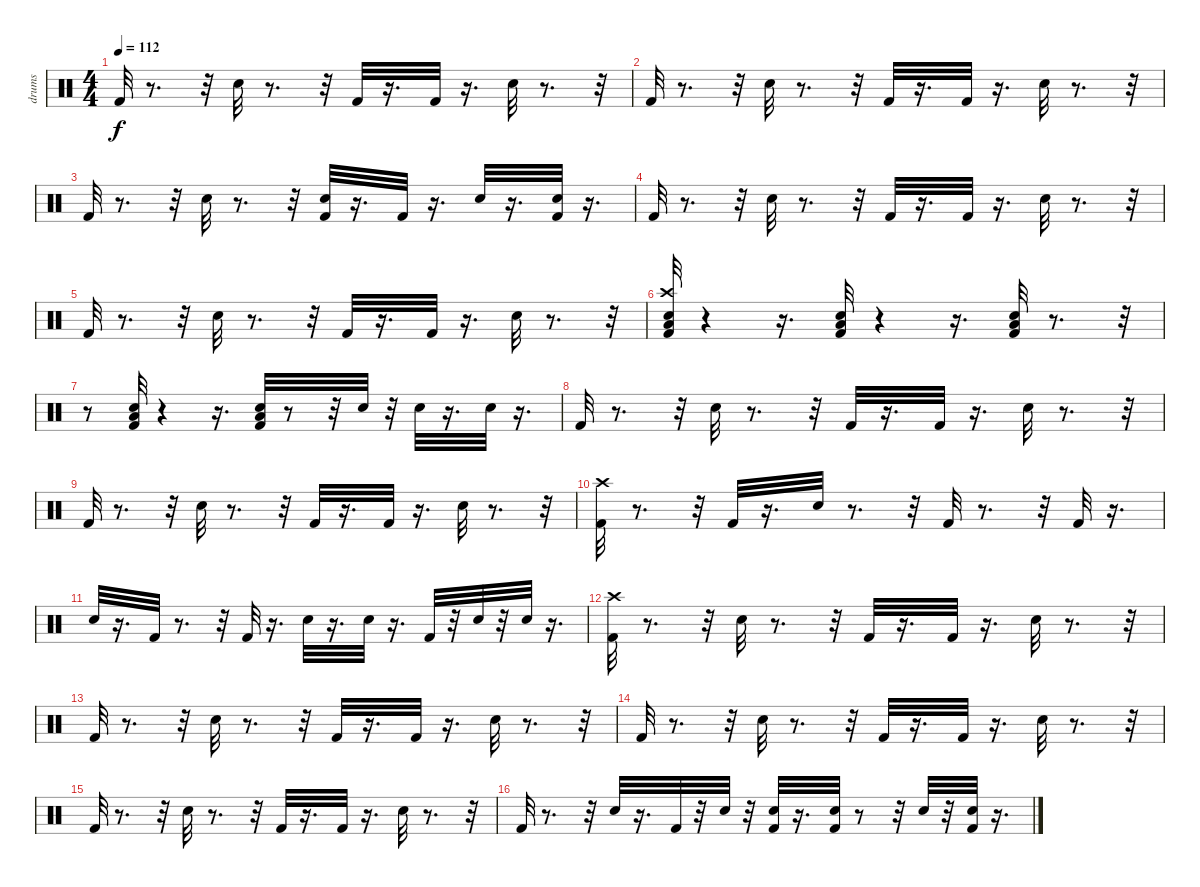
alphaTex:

\track ("drums" "drums") {instrument percussion}
\staff {score}
\articulation defaults
\ts (4 4)
\tempo 112
\clef neutral
\ks c "Kick (hit) 2".32{dy f}
r.8{d} r.32 "Snare (hit) 2".32 r.8{d} r.32 "Kick (hit) 2".32 r.16{d} "Kick (hit) 2".32 r.16{d} "Snare (hit) 2".32 r.8{d} r.32 |
"Kick (hit) 2".32 r.8{d} r.32 "Snare (hit) 2".32 r.8{d} r.32 "Kick (hit) 2".32 r.16{d} "Kick (hit) 2".32 r.16{d} "Snare (hit) 2".32 r.8{d} r.32 |
"Kick (hit) 2".32 r.8{d} r.32 "Snare (hit) 2".32 r.8{d} r.32 ("Snare (hit) 2" "Kick (hit) 2").32 r.16{d} "Kick (hit) 2".32 r.16{d} "Snare (hit) 2".32 r.16{d} ("Kick (hit) 2" "Snare (hit) 2").32 r.16{d} |
"Kick (hit) 2".32 r.8{d} r.32 "Snare (hit) 2".32 r.8{d} r.32 "Kick (hit) 2".32 r.16{d} "Kick (hit) 2".32 r.16{d} "Snare (hit) 2".32 r.8{d} r.32 |
"Kick (hit) 2".32 r.8{d} r.32 "Snare (hit) 2".32 r.8{d} r.32 "Kick (hit) 2".32 r.16{d} "Kick (hit) 2".32 r.16{d} "Snare (hit) 2".32 r.8{d} r.32 |
("Crash high (hit)" "Kick (hit) 2" "Low Floor Tom (hit)" "Snare (hit) 2").32 r.4 r.16{d} ("Kick (hit) 2" "Low Floor Tom (hit)" "Snare (hit) 2").32 r.4 r.16{d} ("Kick (hit) 2" "Low Floor Tom (hit)" "Snare (hit) 2").32 r.8{d} r.32 |
r.8 ("Kick (hit) 2" "Low Floor Tom (hit)" "Snare (hit) 2").32 r.4 r.16{d} ("Kick (hit) 2" "Low Floor Tom (hit)" "Snare (hit) 2").32 r.8 r.32 "Snare (hit) 2".32 r.32 "Snare (hit) 2".32 r.16{d} "Snare (hit) 2".32 r.16{d} |
"Kick (hit) 2".32 r.8{d} r.32 "Snare (hit) 2".32 r.8{d} r.32 "Kick (hit) 2".32 r.16{d} "Kick (hit) 2".32 r.16{d} "Snare (hit) 2".32 r.8{d} r.32 |
"Kick (hit) 2".32 r.8{d} r.32 "Snare (hit) 2".32 r.8{d} r.32 "Kick (hit) 2".32 r.16{d} "Kick (hit) 2".32 r.16{d} "Snare (hit) 2".32 r.8{d} r.32 |
("Crash high (hit)" "Kick (hit) 2").32 r.8{d} r.32 "Kick (hit) 2".32 r.16{d} "Snare (hit) 2".32 r.8{d} r.32 "Kick (hit) 2".32 r.8{d} r.32 "Kick (hit) 2".32 r.16{d} |
"Snare (hit) 2".32 r.16{d} "Kick (hit) 2".32 r.8{d} r.32 "Kick (hit) 2".32 r.16{d} "Snare (hit) 2".32 r.16{d} "Snare (hit) 2".32 r.16{d} "Kick (hit) 2".32 r.32 "Snare (hit) 2".32 r.32 "Snare (hit) 2".32 r.16{d} |
("Crash high (hit)" "Kick (hit) 2").32 r.8{d} r.32 "Snare (hit) 2".32 r.8{d} r.32 "Kick (hit) 2".32 r.16{d} "Kick (hit) 2".32 r.16{d} "Snare (hit) 2".32 r.8{d} r.32 |
"Kick (hit) 2".32 r.8{d} r.32 "Snare (hit) 2".32 r.8{d} r.32 "Kick (hit) 2".32 r.16{d} "Kick (hit) 2".32 r.16{d} "Snare (hit) 2".32 r.8{d} r.32 |
"Kick (hit) 2".32 r.8{d} r.32 "Snare (hit) 2".32 r.8{d} r.32 "Kick (hit) 2".32 r.16{d} "Kick (hit) 2".32 r.16{d} "Snare (hit) 2".32 r.8{d} r.32 |
"Kick (hit) 2".32 r.8{d} r.32 "Snare (hit) 2".32 r.8{d} r.32 "Kick (hit) 2".32 r.16{d} "Kick (hit) 2".32 r.16{d} "Snare (hit) 2".32 r.8{d} r.32 |
"Kick (hit) 2".32 r.8{d} r.32 "Snare (hit) 2".32 r.16{d} "Kick (hit) 2".32 r.32 "Snare (hit) 2".32 r.32 ("Snare (hit) 2" "Kick (hit) 2").32 r.16{d} ("Snare (hit) 2" "Kick (hit) 2").32 r.8 r.32 "Snare (hit) 2".32 r.32 ("Kick (hit) 2" "Snare (hit) 2").32 r.16{d}
